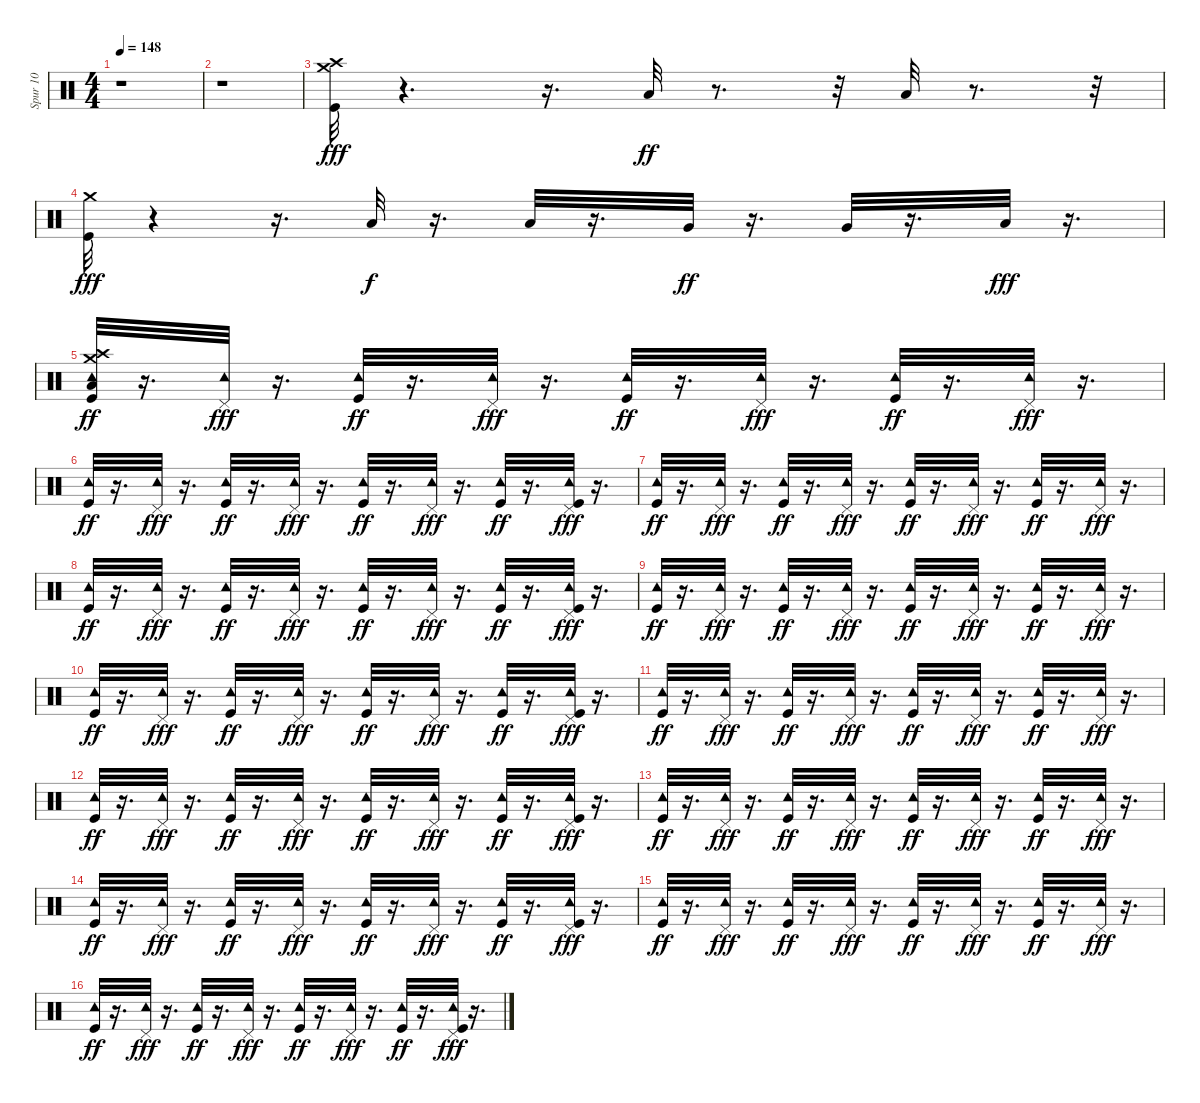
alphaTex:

\track ("Spur 10" "Spur 10") {instrument percussion}
\staff {score}
\articulation defaults
\ts (4 4)
\tempo 148
\clef neutral
\ks c
r.1{dy fff} |
r.1 |
("Kick (hit)" "Crash high (hit)" "Crash medium (hit)").32 r.4{d} r.16{d} "Low Floor Tom (hit)".32{dy ff} r.8{d} r.32 "Low Floor Tom (hit)".32 r.8{d} r.32 |
("Kick (hit)" "Crash medium (hit)").32{dy fff} r.4 r.16{d} "Low Tom (hit)".32{dy f} r.16{d} "Low Tom (hit)".32 r.16{d} "Very Low Tom (hit)".32{dy ff} r.16{d} "Very Low Tom (hit)".32 r.16{d} "Low Floor Tom (hit)".32{dy fff} r.16{d} |
("Kick (hit)" "Low Floor Tom (hit)" "Tambourine (hit)" "Crash high (hit)" "Crash medium (hit)").32{dy ff} r.16{d} ("Tambourine (hit)" "Pedal Hi-Hat (hit)").32{dy fff} r.16{d} ("Kick (hit)" "Tambourine (hit)").32{dy ff} r.16{d} ("Tambourine (hit)" "Pedal Hi-Hat (hit)").32{dy fff} r.16{d} ("Kick (hit)" "Tambourine (hit)").32{dy ff} r.16{d} ("Tambourine (hit)" "Pedal Hi-Hat (hit)").32{dy fff} r.16{d} ("Kick (hit)" "Tambourine (hit)").32{dy ff} r.16{d} ("Tambourine (hit)" "Pedal Hi-Hat (hit)").32{dy fff} r.16{d} |
("Kick (hit)" "Tambourine (hit)").32{dy ff} r.16{d} ("Tambourine (hit)" "Pedal Hi-Hat (hit)").32{dy fff} r.16{d} ("Kick (hit)" "Tambourine (hit)").32{dy ff} r.16{d} ("Tambourine (hit)" "Pedal Hi-Hat (hit)").32{dy fff} r.16{d} ("Kick (hit)" "Tambourine (hit)").32{dy ff} r.16{d} ("Tambourine (hit)" "Pedal Hi-Hat (hit)").32{dy fff} r.16{d} ("Kick (hit)" "Tambourine (hit)").32{dy ff} r.16{d} ("Kick (hit)" "Tambourine (hit)" "Pedal Hi-Hat (hit)").32{dy fff} r.16{d} |
("Kick (hit)" "Tambourine (hit)").32{dy ff} r.16{d} ("Tambourine (hit)" "Pedal Hi-Hat (hit)").32{dy fff} r.16{d} ("Kick (hit)" "Tambourine (hit)").32{dy ff} r.16{d} ("Tambourine (hit)" "Pedal Hi-Hat (hit)").32{dy fff} r.16{d} ("Kick (hit)" "Tambourine (hit)").32{dy ff} r.16{d} ("Tambourine (hit)" "Pedal Hi-Hat (hit)").32{dy fff} r.16{d} ("Kick (hit)" "Tambourine (hit)").32{dy ff} r.16{d} ("Tambourine (hit)" "Pedal Hi-Hat (hit)").32{dy fff} r.16{d} |
("Kick (hit)" "Tambourine (hit)").32{dy ff} r.16{d} ("Tambourine (hit)" "Pedal Hi-Hat (hit)").32{dy fff} r.16{d} ("Kick (hit)" "Tambourine (hit)").32{dy ff} r.16{d} ("Tambourine (hit)" "Pedal Hi-Hat (hit)").32{dy fff} r.16{d} ("Kick (hit)" "Tambourine (hit)").32{dy ff} r.16{d} ("Tambourine (hit)" "Pedal Hi-Hat (hit)").32{dy fff} r.16{d} ("Kick (hit)" "Tambourine (hit)").32{dy ff} r.16{d} ("Kick (hit)" "Tambourine (hit)" "Pedal Hi-Hat (hit)").32{dy fff} r.16{d} |
("Kick (hit)" "Tambourine (hit)").32{dy ff} r.16{d} ("Tambourine (hit)" "Pedal Hi-Hat (hit)").32{dy fff} r.16{d} ("Kick (hit)" "Tambourine (hit)").32{dy ff} r.16{d} ("Tambourine (hit)" "Pedal Hi-Hat (hit)").32{dy fff} r.16{d} ("Kick (hit)" "Tambourine (hit)").32{dy ff} r.16{d} ("Tambourine (hit)" "Pedal Hi-Hat (hit)").32{dy fff} r.16{d} ("Kick (hit)" "Tambourine (hit)").32{dy ff} r.16{d} ("Tambourine (hit)" "Pedal Hi-Hat (hit)").32{dy fff} r.16{d} |
("Kick (hit)" "Tambourine (hit)").32{dy ff} r.16{d} ("Tambourine (hit)" "Pedal Hi-Hat (hit)").32{dy fff} r.16{d} ("Kick (hit)" "Tambourine (hit)").32{dy ff} r.16{d} ("Tambourine (hit)" "Pedal Hi-Hat (hit)").32{dy fff} r.16{d} ("Kick (hit)" "Tambourine (hit)").32{dy ff} r.16{d} ("Tambourine (hit)" "Pedal Hi-Hat (hit)").32{dy fff} r.16{d} ("Kick (hit)" "Tambourine (hit)").32{dy ff} r.16{d} ("Kick (hit)" "Tambourine (hit)" "Pedal Hi-Hat (hit)").32{dy fff} r.16{d} |
("Kick (hit)" "Tambourine (hit)").32{dy ff} r.16{d} ("Tambourine (hit)" "Pedal Hi-Hat (hit)").32{dy fff} r.16{d} ("Kick (hit)" "Tambourine (hit)").32{dy ff} r.16{d} ("Tambourine (hit)" "Pedal Hi-Hat (hit)").32{dy fff} r.16{d} ("Kick (hit)" "Tambourine (hit)").32{dy ff} r.16{d} ("Tambourine (hit)" "Pedal Hi-Hat (hit)").32{dy fff} r.16{d} ("Kick (hit)" "Tambourine (hit)").32{dy ff} r.16{d} ("Tambourine (hit)" "Pedal Hi-Hat (hit)").32{dy fff} r.16{d} |
("Kick (hit)" "Tambourine (hit)").32{dy ff} r.16{d} ("Tambourine (hit)" "Pedal Hi-Hat (hit)").32{dy fff} r.16{d} ("Kick (hit)" "Tambourine (hit)").32{dy ff} r.16{d} ("Tambourine (hit)" "Pedal Hi-Hat (hit)").32{dy fff} r.16{d} ("Kick (hit)" "Tambourine (hit)").32{dy ff} r.16{d} ("Tambourine (hit)" "Pedal Hi-Hat (hit)").32{dy fff} r.16{d} ("Kick (hit)" "Tambourine (hit)").32{dy ff} r.16{d} ("Kick (hit)" "Tambourine (hit)" "Pedal Hi-Hat (hit)").32{dy fff} r.16{d} |
("Kick (hit)" "Tambourine (hit)").32{dy ff} r.16{d} ("Tambourine (hit)" "Pedal Hi-Hat (hit)").32{dy fff} r.16{d} ("Kick (hit)" "Tambourine (hit)").32{dy ff} r.16{d} ("Tambourine (hit)" "Pedal Hi-Hat (hit)").32{dy fff} r.16{d} ("Kick (hit)" "Tambourine (hit)").32{dy ff} r.16{d} ("Tambourine (hit)" "Pedal Hi-Hat (hit)").32{dy fff} r.16{d} ("Kick (hit)" "Tambourine (hit)").32{dy ff} r.16{d} ("Tambourine (hit)" "Pedal Hi-Hat (hit)").32{dy fff} r.16{d} |
("Kick (hit)" "Tambourine (hit)").32{dy ff} r.16{d} ("Tambourine (hit)" "Pedal Hi-Hat (hit)").32{dy fff} r.16{d} ("Kick (hit)" "Tambourine (hit)").32{dy ff} r.16{d} ("Tambourine (hit)" "Pedal Hi-Hat (hit)").32{dy fff} r.16{d} ("Kick (hit)" "Tambourine (hit)").32{dy ff} r.16{d} ("Tambourine (hit)" "Pedal Hi-Hat (hit)").32{dy fff} r.16{d} ("Kick (hit)" "Tambourine (hit)").32{dy ff} r.16{d} ("Kick (hit)" "Tambourine (hit)" "Pedal Hi-Hat (hit)").32{dy fff} r.16{d} |
("Kick (hit)" "Tambourine (hit)").32{dy ff} r.16{d} ("Tambourine (hit)" "Pedal Hi-Hat (hit)").32{dy fff} r.16{d} ("Kick (hit)" "Tambourine (hit)").32{dy ff} r.16{d} ("Tambourine (hit)" "Pedal Hi-Hat (hit)").32{dy fff} r.16{d} ("Kick (hit)" "Tambourine (hit)").32{dy ff} r.16{d} ("Tambourine (hit)" "Pedal Hi-Hat (hit)").32{dy fff} r.16{d} ("Kick (hit)" "Tambourine (hit)").32{dy ff} r.16{d} ("Tambourine (hit)" "Pedal Hi-Hat (hit)").32{dy fff} r.16{d} |
("Kick (hit)" "Tambourine (hit)").32{dy ff} r.16{d} ("Tambourine (hit)" "Pedal Hi-Hat (hit)").32{dy fff} r.16{d} ("Kick (hit)" "Tambourine (hit)").32{dy ff} r.16{d} ("Tambourine (hit)" "Pedal Hi-Hat (hit)").32{dy fff} r.16{d} ("Kick (hit)" "Tambourine (hit)").32{dy ff} r.16{d} ("Tambourine (hit)" "Pedal Hi-Hat (hit)").32{dy fff} r.16{d} ("Kick (hit)" "Tambourine (hit)").32{dy ff} r.16{d} ("Kick (hit)" "Tambourine (hit)" "Pedal Hi-Hat (hit)").32{dy fff} r.16{d}
